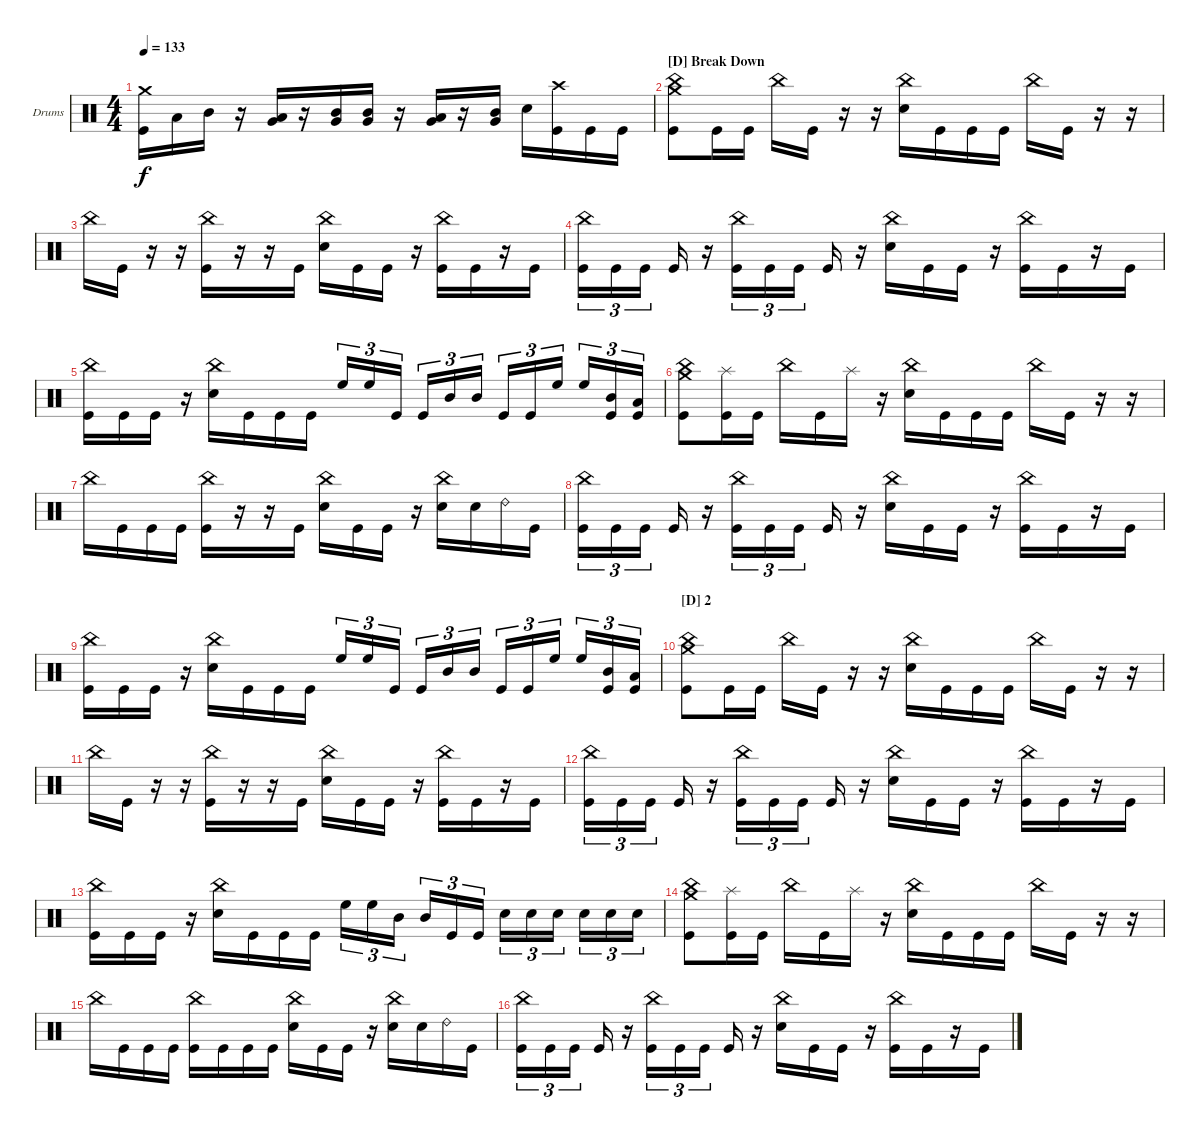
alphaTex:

\bracketExtendMode groupsimilarinstruments
\firstSystemTrackNameOrientation horizontal
\otherSystemsTrackNameOrientation horizontal
\track ("Ben Kazenoff" "Drums") {instrument percussion}
\staff {score}
\articulation defaults
\ts (4 4)
\tempo 133
\clef neutral
\ks c
("Crash medium (hit)" "Kick (hit)").16{dy f} "Low Tom (hit)".16 "Mid Tom (hit)".16 r.16 ("Low Tom (hit)" "Very Low Tom (hit)").16 r.16 ("Mid Tom (hit)" "Very Low Tom (hit)").16 ("Mid Tom (hit)" "Very Low Tom (hit)").16 r.16 ("Low Tom (hit)" "Very Low Tom (hit)").16 r.16 ("Mid Tom (hit)" "Very Low Tom (hit)").16 "Snare (hit) 2".16 ("Crash high (hit)" "Kick (hit)").16 "Kick (hit)".16 "Kick (hit)".16 |
\section ("D" "Break Down")
("China (hit)" "Crash medium (hit)" "Kick (hit)").8 "Kick (hit)".16 "Kick (hit)".16 "China (hit)".16 "Kick (hit)".16 r.16 r.16 ("China (hit)" "Snare (hit) 2").16 "Kick (hit)".16 "Kick (hit)".16 "Kick (hit)".16 "China (hit)".16 "Kick (hit)".16 r.16 r.16 |
"China (hit)".16 "Kick (hit)".16 r.16 r.16 ("China (hit)" "Kick (hit)").16 r.16 r.16 "Kick (hit)".16 ("China (hit)" "Snare (hit) 2").16 "Kick (hit)".16 "Kick (hit)".16 r.16 ("China (hit)" "Kick (hit)").16 "Kick (hit)".16 r.16 "Kick (hit)".16 |
("China (hit)" "Kick (hit)").16{tu (3 2)} "Kick (hit)".16{tu (3 2)} "Kick (hit)".16{tu (3 2)} "Kick (hit)".16 r.16 ("China (hit)" "Kick (hit)").16{tu (3 2)} "Kick (hit)".16{tu (3 2)} "Kick (hit)".16{tu (3 2)} "Kick (hit)".16 r.16 ("China (hit)" "Snare (hit) 2").16 "Kick (hit)".16 "Kick (hit)".16 r.16 ("China (hit)" "Kick (hit)").16 "Kick (hit)".16 r.16 "Kick (hit)".16 |
("Kick (hit)" "China (hit)").16 "Kick (hit)".16 "Kick (hit)".16 r.16 ("Snare (hit) 2" "China (hit)").16 "Kick (hit)".16 "Kick (hit)".16 "Kick (hit)".16 "High Floor Tom (hit)".16{tu (3 2)} "High Floor Tom (hit)".16{tu (3 2)} "Kick (hit)".16{tu (3 2)} "Kick (hit)".16{tu (3 2)} "Mid Tom (hit)".16{tu (3 2)} "Mid Tom (hit)".16{tu (3 2)} "Kick (hit)".16{tu (3 2)} "Kick (hit)".16{tu (3 2)} "High Floor Tom (hit)".16{tu (3 2)} "High Floor Tom (hit)".16{tu (3 2)} ("Kick (hit)" "Mid Tom (hit)").16{tu (3 2)} ("Kick (hit)" "Low Tom (hit)").16{tu (3 2)} |
("China (hit)" "Crash medium (hit)" "Kick (hit)").8 ("Splash (hit)" "Kick (hit)").16 "Kick (hit)".16 "China (hit)".16 "Kick (hit)".16 "Splash (hit)".16 r.16 ("China (hit)" "Snare (hit) 2").16 "Kick (hit)".16 "Kick (hit)".16 "Kick (hit)".16 "China (hit)".16 "Kick (hit)".16 r.16 r.16 |
"China (hit)".16 "Kick (hit)".16 "Kick (hit)".16 "Kick (hit)".16 ("China (hit)" "Kick (hit)").16 r.16 r.16 "Kick (hit)".16 ("China (hit)" "Snare (hit) 2").16 "Kick (hit)".16 "Kick (hit)".16 r.16 ("China (hit)" "Snare (hit) 2").16 "Snare (hit) 2".16 "Ride (bell) 2".16 "Kick (hit)".16 |
("China (hit)" "Kick (hit)").16{tu (3 2)} "Kick (hit)".16{tu (3 2)} "Kick (hit)".16{tu (3 2)} "Kick (hit)".16 r.16 ("China (hit)" "Kick (hit)").16{tu (3 2)} "Kick (hit)".16{tu (3 2)} "Kick (hit)".16{tu (3 2)} "Kick (hit)".16 r.16 ("China (hit)" "Snare (hit) 2").16 "Kick (hit)".16 "Kick (hit)".16 r.16 ("China (hit)" "Kick (hit)").16 "Kick (hit)".16 r.16 "Kick (hit)".16 |
("Kick (hit)" "China (hit)").16 "Kick (hit)".16 "Kick (hit)".16 r.16 ("Snare (hit) 2" "China (hit)").16 "Kick (hit)".16 "Kick (hit)".16 "Kick (hit)".16 "High Floor Tom (hit)".16{tu (3 2)} "High Floor Tom (hit)".16{tu (3 2)} "Kick (hit)".16{tu (3 2)} "Kick (hit)".16{tu (3 2)} "Mid Tom (hit)".16{tu (3 2)} "Mid Tom (hit)".16{tu (3 2)} "Kick (hit)".16{tu (3 2)} "Kick (hit)".16{tu (3 2)} "High Floor Tom (hit)".16{tu (3 2)} "High Floor Tom (hit)".16{tu (3 2)} ("Kick (hit)" "Mid Tom (hit)").16{tu (3 2)} ("Kick (hit)" "Low Tom (hit)").16{tu (3 2)} |
\section ("D" "2")
("China (hit)" "Crash medium (hit)" "Kick (hit)").8 "Kick (hit)".16 "Kick (hit)".16 "China (hit)".16 "Kick (hit)".16 r.16 r.16 ("China (hit)" "Snare (hit) 2").16 "Kick (hit)".16 "Kick (hit)".16 "Kick (hit)".16 "China (hit)".16 "Kick (hit)".16 r.16 r.16 |
"China (hit)".16 "Kick (hit)".16 r.16 r.16 ("China (hit)" "Kick (hit)").16 r.16 r.16 "Kick (hit)".16 ("China (hit)" "Snare (hit) 2").16 "Kick (hit)".16 "Kick (hit)".16 r.16 ("China (hit)" "Kick (hit)").16 "Kick (hit)".16 r.16 "Kick (hit)".16 |
("China (hit)" "Kick (hit)").16{tu (3 2)} "Kick (hit)".16{tu (3 2)} "Kick (hit)".16{tu (3 2)} "Kick (hit)".16 r.16 ("China (hit)" "Kick (hit)").16{tu (3 2)} "Kick (hit)".16{tu (3 2)} "Kick (hit)".16{tu (3 2)} "Kick (hit)".16 r.16 ("China (hit)" "Snare (hit) 2").16 "Kick (hit)".16 "Kick (hit)".16 r.16 ("China (hit)" "Kick (hit)").16 "Kick (hit)".16 r.16 "Kick (hit)".16 |
("Kick (hit)" "China (hit)").16 "Kick (hit)".16 "Kick (hit)".16 r.16 ("Snare (hit) 2" "China (hit)").16 "Kick (hit)".16 "Kick (hit)".16 "Kick (hit)".16 "High Floor Tom (hit)".16{tu (3 2)} "High Floor Tom (hit)".16{tu (3 2)} "Mid Tom (hit)".16{tu (3 2)} "Mid Tom (hit)".16{tu (3 2)} "Kick (hit)".16{tu (3 2)} "Kick (hit)".16{tu (3 2)} "Snare (hit) 2".16{tu (3 2)} "Snare (hit) 2".16{tu (3 2)} "Snare (hit) 2".16{tu (3 2)} "Snare (hit) 2".16{tu (3 2)} "Snare (hit) 2".16{tu (3 2)} "Snare (hit) 2".16{tu (3 2)} |
("China (hit)" "Crash medium (hit)" "Kick (hit)").8 ("Splash (hit)" "Kick (hit)").16 "Kick (hit)".16 "China (hit)".16 "Kick (hit)".16 "Splash (hit)".16 r.16 ("China (hit)" "Snare (hit) 2").16 "Kick (hit)".16 "Kick (hit)".16 "Kick (hit)".16 "China (hit)".16 "Kick (hit)".16 r.16 r.16 |
"China (hit)".16 "Kick (hit)".16 "Kick (hit)".16 "Kick (hit)".16 ("China (hit)" "Kick (hit)").16 "Kick (hit)".16 "Kick (hit)".16 "Kick (hit)".16 ("China (hit)" "Snare (hit) 2").16 "Kick (hit)".16 "Kick (hit)".16 r.16 ("China (hit)" "Snare (hit) 2").16 "Snare (hit) 2".16 "Ride (bell) 2".16 "Kick (hit)".16 |
("China (hit)" "Kick (hit)").16{tu (3 2)} "Kick (hit)".16{tu (3 2)} "Kick (hit)".16{tu (3 2)} "Kick (hit)".16 r.16 ("China (hit)" "Kick (hit)").16{tu (3 2)} "Kick (hit)".16{tu (3 2)} "Kick (hit)".16{tu (3 2)} "Kick (hit)".16 r.16 ("China (hit)" "Snare (hit) 2").16 "Kick (hit)".16 "Kick (hit)".16 r.16 ("China (hit)" "Kick (hit)").16 "Kick (hit)".16 r.16 "Kick (hit)".16
